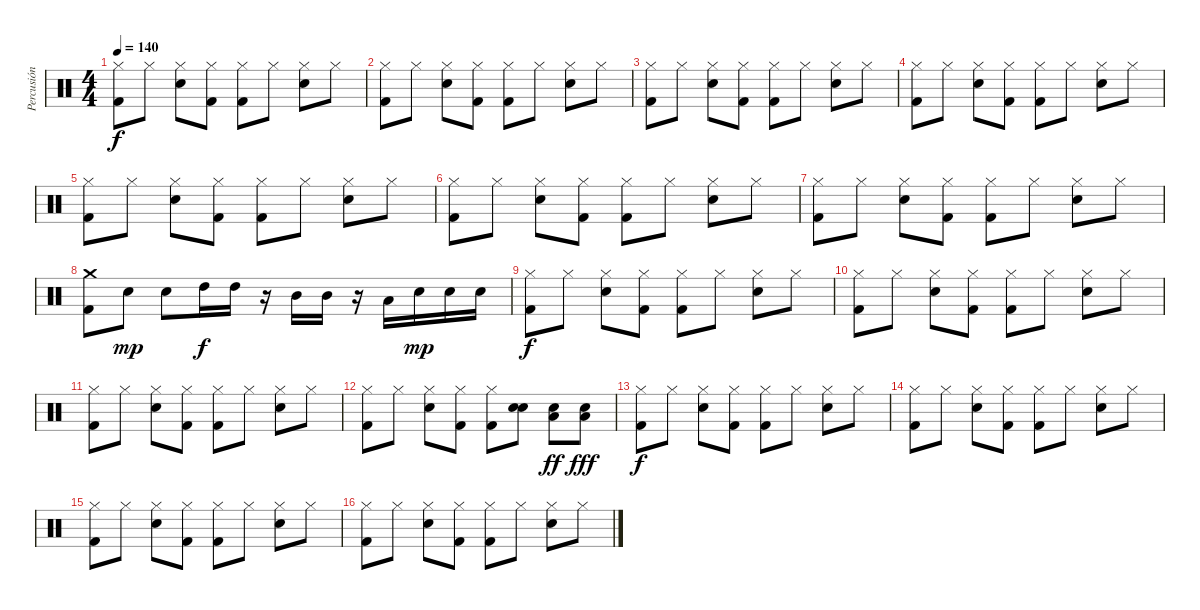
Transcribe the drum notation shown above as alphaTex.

\track ("Percusión" "Percusión") {instrument percussion}
\staff {score}
\articulation defaults
\ts (4 4)
\tempo 140
\clef neutral
\ks c
("Hi-Hat (closed)" "Kick (hit) 2").8{dy f} "Hi-Hat (closed)".8 ("Hi-Hat (closed)" "Snare (hit) 2").8 ("Hi-Hat (closed)" "Kick (hit) 2").8 ("Hi-Hat (closed)" "Kick (hit) 2").8 "Hi-Hat (closed)".8 ("Hi-Hat (closed)" "Snare (hit) 2").8 "Hi-Hat (closed)".8 |
("Hi-Hat (closed)" "Kick (hit) 2").8 "Hi-Hat (closed)".8 ("Hi-Hat (closed)" "Snare (hit) 2").8 ("Hi-Hat (closed)" "Kick (hit) 2").8 ("Hi-Hat (closed)" "Kick (hit) 2").8 "Hi-Hat (closed)".8 ("Hi-Hat (closed)" "Snare (hit) 2").8 "Hi-Hat (closed)".8 |
("Hi-Hat (closed)" "Kick (hit) 2").8 "Hi-Hat (closed)".8 ("Hi-Hat (closed)" "Snare (hit) 2").8 ("Hi-Hat (closed)" "Kick (hit) 2").8 ("Hi-Hat (closed)" "Kick (hit) 2").8 "Hi-Hat (closed)".8 ("Hi-Hat (closed)" "Snare (hit) 2").8 "Hi-Hat (closed)".8 |
("Hi-Hat (closed)" "Kick (hit) 2").8 "Hi-Hat (closed)".8 ("Hi-Hat (closed)" "Snare (hit) 2").8 ("Hi-Hat (closed)" "Kick (hit) 2").8 ("Hi-Hat (closed)" "Kick (hit) 2").8 "Hi-Hat (closed)".8 ("Hi-Hat (closed)" "Snare (hit) 2").8 "Hi-Hat (closed)".8 |
("Hi-Hat (closed)" "Kick (hit) 2").8 "Hi-Hat (closed)".8 ("Hi-Hat (closed)" "Snare (hit) 2").8 ("Hi-Hat (closed)" "Kick (hit) 2").8 ("Hi-Hat (closed)" "Kick (hit) 2").8 "Hi-Hat (closed)".8 ("Hi-Hat (closed)" "Snare (hit) 2").8 "Hi-Hat (closed)".8 |
("Hi-Hat (closed)" "Kick (hit) 2").8 "Hi-Hat (closed)".8 ("Hi-Hat (closed)" "Snare (hit) 2").8 ("Hi-Hat (closed)" "Kick (hit) 2").8 ("Hi-Hat (closed)" "Kick (hit) 2").8 "Hi-Hat (closed)".8 ("Hi-Hat (closed)" "Snare (hit) 2").8 "Hi-Hat (closed)".8 |
("Hi-Hat (closed)" "Kick (hit) 2").8 "Hi-Hat (closed)".8 ("Hi-Hat (closed)" "Snare (hit) 2").8 ("Hi-Hat (closed)" "Kick (hit) 2").8 ("Hi-Hat (closed)" "Kick (hit) 2").8 "Hi-Hat (closed)".8 ("Hi-Hat (closed)" "Snare (hit) 2").8 "Hi-Hat (closed)".8 |
("Crash medium (hit)" "Kick (hit) 2").8 "Snare (hit) 2".8{dy mp} "Snare (hit) 2".8 "High Tom (hit)".16{dy f} "High Tom (hit)".16 r.16 "Mid Tom (hit)".16 "Mid Tom (hit)".16 r.16 "Low Tom (hit)".16 "Snare (hit) 2".16{dy mp} "Snare (hit) 2".16 "Snare (hit) 2".16 |
("Hi-Hat (closed)" "Kick (hit) 2").8{dy f} "Hi-Hat (closed)".8 ("Hi-Hat (closed)" "Snare (hit) 2").8 ("Hi-Hat (closed)" "Kick (hit) 2").8 ("Hi-Hat (closed)" "Kick (hit) 2").8 "Hi-Hat (closed)".8 ("Hi-Hat (closed)" "Snare (hit) 2").8 "Hi-Hat (closed)".8 |
("Hi-Hat (closed)" "Kick (hit) 2").8 "Hi-Hat (closed)".8 ("Hi-Hat (closed)" "Snare (hit) 2").8 ("Hi-Hat (closed)" "Kick (hit) 2").8 ("Hi-Hat (closed)" "Kick (hit) 2").8 "Hi-Hat (closed)".8 ("Hi-Hat (closed)" "Snare (hit) 2").8 "Hi-Hat (closed)".8 |
("Hi-Hat (closed)" "Kick (hit) 2").8 "Hi-Hat (closed)".8 ("Hi-Hat (closed)" "Snare (hit) 2").8 ("Hi-Hat (closed)" "Kick (hit) 2").8 ("Hi-Hat (closed)" "Kick (hit) 2").8 "Hi-Hat (closed)".8 ("Hi-Hat (closed)" "Snare (hit) 2").8 "Hi-Hat (closed)".8 |
("Hi-Hat (closed)" "Kick (hit) 2").8 "Hi-Hat (closed)".8 ("Hi-Hat (closed)" "Snare (hit) 2").8 ("Hi-Hat (closed)" "Kick (hit) 2").8 ("Hi-Hat (closed)" "Kick (hit) 2").8 ("Snare (hit) 2" "Snare (hit) 2").8 ("Snare (hit) 2" "Low Tom (hit)").8{dy ff} ("Snare (hit) 2" "Low Floor Tom (hit)").8{dy fff} |
("Hi-Hat (closed)" "Kick (hit) 2").8{dy f} "Hi-Hat (closed)".8 ("Hi-Hat (closed)" "Snare (hit) 2").8 ("Hi-Hat (closed)" "Kick (hit) 2").8 ("Hi-Hat (closed)" "Kick (hit) 2").8 "Hi-Hat (closed)".8 ("Hi-Hat (closed)" "Snare (hit) 2").8 "Hi-Hat (closed)".8 |
("Hi-Hat (closed)" "Kick (hit) 2").8 "Hi-Hat (closed)".8 ("Hi-Hat (closed)" "Snare (hit) 2").8 ("Hi-Hat (closed)" "Kick (hit) 2").8 ("Hi-Hat (closed)" "Kick (hit) 2").8 "Hi-Hat (closed)".8 ("Hi-Hat (closed)" "Snare (hit) 2").8 "Hi-Hat (closed)".8 |
("Hi-Hat (closed)" "Kick (hit) 2").8 "Hi-Hat (closed)".8 ("Hi-Hat (closed)" "Snare (hit) 2").8 ("Hi-Hat (closed)" "Kick (hit) 2").8 ("Hi-Hat (closed)" "Kick (hit) 2").8 "Hi-Hat (closed)".8 ("Hi-Hat (closed)" "Snare (hit) 2").8 "Hi-Hat (closed)".8 |
("Hi-Hat (closed)" "Kick (hit) 2").8 "Hi-Hat (closed)".8 ("Hi-Hat (closed)" "Snare (hit) 2").8 ("Hi-Hat (closed)" "Kick (hit) 2").8 ("Hi-Hat (closed)" "Kick (hit) 2").8 "Hi-Hat (closed)".8 ("Hi-Hat (closed)" "Snare (hit) 2").8 "Hi-Hat (closed)".8
